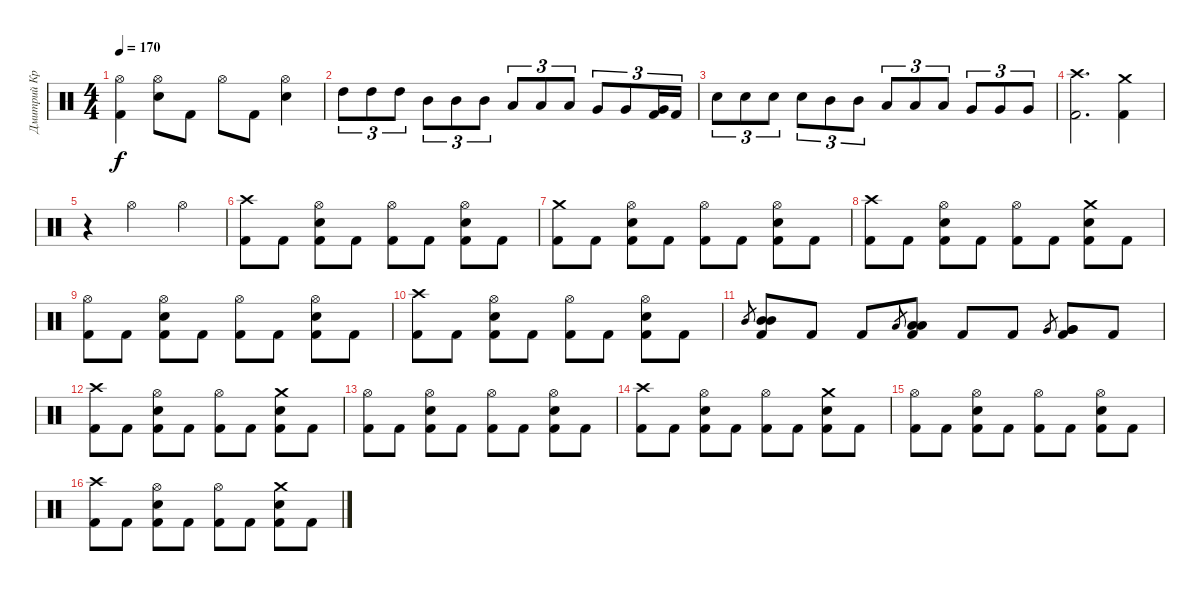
\track ("Дмитрий Кривенков" "Дмитрий Кр") {instrument percussion}
\staff {score}
\articulation defaults
\ts (4 4)
\tempo 170
\clef neutral
\ks c
("Hi-Hat (open)" "Kick (hit) 2").4{dy f} ("Hi-Hat (open)" "Electric Snare (hit)").8 "Kick (hit) 2".8 "Hi-Hat (open)".8 "Kick (hit) 2".8 ("Hi-Hat (open)" "Electric Snare (hit)").4 |
"High Tom (hit)".8{tu (3 2)} "High Tom (hit)".8{tu (3 2)} "High Tom (hit)".8{tu (3 2)} "Mid Tom (hit)".8{tu (3 2)} "Mid Tom (hit)".8{tu (3 2)} "Mid Tom (hit)".8{tu (3 2)} "Low Tom (hit)".8{tu (3 2)} "Low Tom (hit)".8{tu (3 2)} "Low Tom (hit)".8{tu (3 2)} "Very Low Tom (hit)".8{tu (3 2)} "Very Low Tom (hit)".8{tu (3 2)} ("Very Low Tom (hit)" "Kick (hit) 2").16{tu (3 2)} "Kick (hit) 2".16{tu (3 2)} |
"Electric Snare (hit)".8{tu (3 2)} "Electric Snare (hit)".8{tu (3 2)} "Electric Snare (hit)".8{tu (3 2)} "Electric Snare (hit)".8{tu (3 2)} "Mid Tom (hit)".8{tu (3 2)} "Mid Tom (hit)".8{tu (3 2)} "Low Tom (hit)".8{tu (3 2)} "Low Tom (hit)".8{tu (3 2)} "Low Tom (hit)".8{tu (3 2)} "Very Low Tom (hit)".8{tu (3 2)} "Very Low Tom (hit)".8{tu (3 2)} "Very Low Tom (hit)".8{tu (3 2)} |
("Crash high (hit)" "Kick (hit) 2").2{d} ("Crash medium (hit)" "Kick (hit) 2").4 |
r.4 "Hi-Hat (open)".2 "Hi-Hat (open)".4 |
("Crash high (hit)" "Kick (hit) 2").8 "Kick (hit) 2".8 ("Hi-Hat (open)" "Electric Snare (hit)" "Kick (hit) 2").8 "Kick (hit) 2".8 ("Hi-Hat (open)" "Kick (hit) 2").8 "Kick (hit) 2".8 ("Hi-Hat (open)" "Electric Snare (hit)" "Kick (hit) 2").8 "Kick (hit) 2".8 |
("Crash medium (hit)" "Kick (hit) 2").8 "Kick (hit) 2".8 ("Hi-Hat (open)" "Electric Snare (hit)" "Kick (hit) 2").8 "Kick (hit) 2".8 ("Hi-Hat (open)" "Kick (hit) 2").8 "Kick (hit) 2".8 ("Hi-Hat (open)" "Electric Snare (hit)" "Kick (hit) 2").8 "Kick (hit) 2".8 |
("Crash high (hit)" "Kick (hit) 2").8 "Kick (hit) 2".8 ("Hi-Hat (open)" "Electric Snare (hit)" "Kick (hit) 2").8 "Kick (hit) 2".8 ("Hi-Hat (open)" "Kick (hit) 2").8 "Kick (hit) 2".8 ("Crash medium (hit)" "Electric Snare (hit)" "Kick (hit) 2").8 "Kick (hit) 2".8 |
("Hi-Hat (open)" "Kick (hit) 2").8 "Kick (hit) 2".8 ("Hi-Hat (open)" "Electric Snare (hit)" "Kick (hit) 2").8 "Kick (hit) 2".8 ("Hi-Hat (open)" "Kick (hit) 2").8 "Kick (hit) 2".8 ("Hi-Hat (open)" "Electric Snare (hit)" "Kick (hit) 2").8 "Kick (hit) 2".8 |
("Crash high (hit)" "Kick (hit) 2").8 "Kick (hit) 2".8 ("Hi-Hat (open)" "Electric Snare (hit)" "Kick (hit) 2").8 "Kick (hit) 2".8 ("Hi-Hat (open)" "Kick (hit) 2").8 "Kick (hit) 2".8 ("Hi-Hat (open)" "Electric Snare (hit)" "Kick (hit) 2").8 "Kick (hit) 2".8 |
"Mid Tom (hit)".8{gr} ("Mid Tom (hit)" "Mid Tom (hit)" "Kick (hit) 2").8 "Kick (hit) 2".8 "Kick (hit) 2".8 "Low Tom (hit)".8{gr} ("Low Tom (hit)" "Low Tom (hit)" "Kick (hit) 2").8 "Kick (hit) 2".8 "Kick (hit) 2".8 "Very Low Tom (hit)".8{gr} ("Very Low Tom (hit)" "Very Low Tom (hit)" "Kick (hit) 2").8 "Kick (hit) 2".8 |
("Crash high (hit)" "Kick (hit) 2").8 "Kick (hit) 2".8 ("Hi-Hat (open)" "Electric Snare (hit)" "Kick (hit) 2").8 "Kick (hit) 2".8 ("Hi-Hat (open)" "Kick (hit) 2").8 "Kick (hit) 2".8 ("Crash medium (hit)" "Electric Snare (hit)" "Kick (hit) 2").8 "Kick (hit) 2".8 |
("Hi-Hat (open)" "Kick (hit) 2").8 "Kick (hit) 2".8 ("Hi-Hat (open)" "Electric Snare (hit)" "Kick (hit) 2").8 "Kick (hit) 2".8 ("Hi-Hat (open)" "Kick (hit) 2").8 "Kick (hit) 2".8 ("Hi-Hat (open)" "Electric Snare (hit)" "Kick (hit) 2").8 "Kick (hit) 2".8 |
("Crash high (hit)" "Kick (hit) 2").8 "Kick (hit) 2".8 ("Hi-Hat (open)" "Electric Snare (hit)" "Kick (hit) 2").8 "Kick (hit) 2".8 ("Hi-Hat (open)" "Kick (hit) 2").8 "Kick (hit) 2".8 ("Crash medium (hit)" "Electric Snare (hit)" "Kick (hit) 2").8 "Kick (hit) 2".8 |
("Hi-Hat (open)" "Kick (hit) 2").8 "Kick (hit) 2".8 ("Hi-Hat (open)" "Electric Snare (hit)" "Kick (hit) 2").8 "Kick (hit) 2".8 ("Hi-Hat (open)" "Kick (hit) 2").8 "Kick (hit) 2".8 ("Hi-Hat (open)" "Electric Snare (hit)" "Kick (hit) 2").8 "Kick (hit) 2".8 |
("Crash high (hit)" "Kick (hit) 2").8 "Kick (hit) 2".8 ("Hi-Hat (open)" "Electric Snare (hit)" "Kick (hit) 2").8 "Kick (hit) 2".8 ("Hi-Hat (open)" "Kick (hit) 2").8 "Kick (hit) 2".8 ("Crash medium (hit)" "Electric Snare (hit)" "Kick (hit) 2").8 "Kick (hit) 2".8
